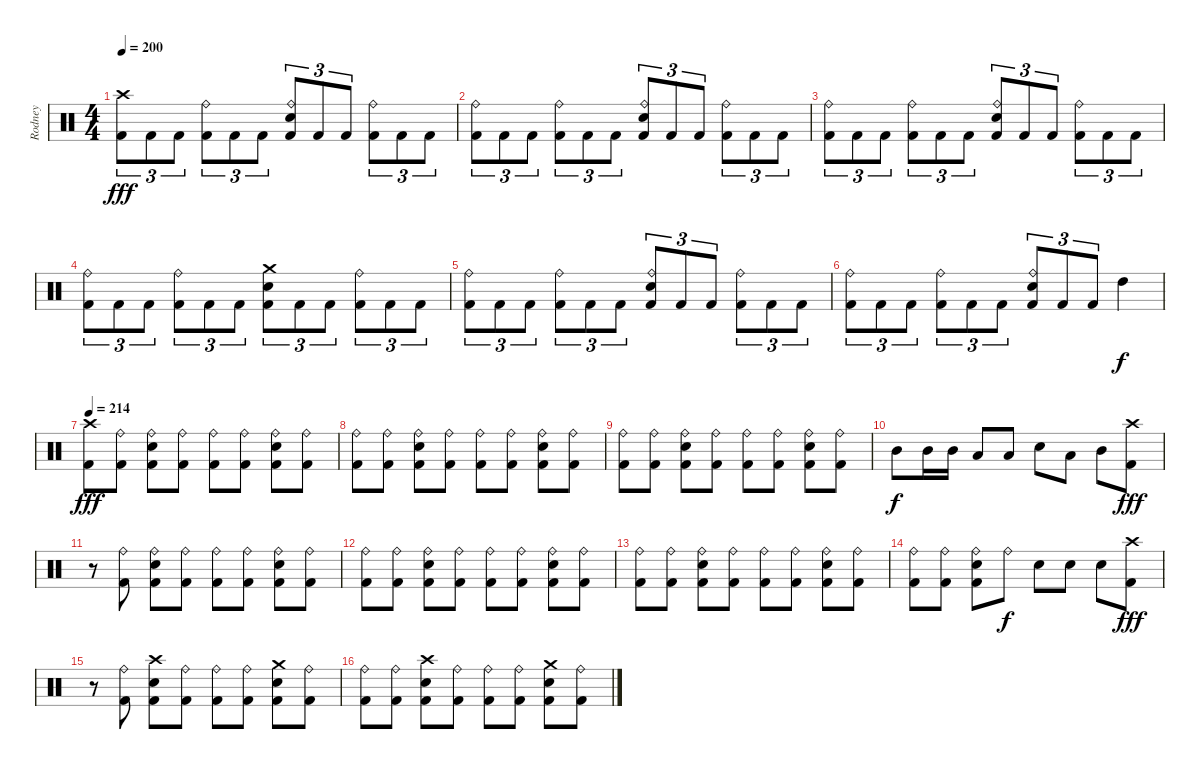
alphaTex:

\track ("Rodney" "Rodney") {instrument percussion}
\staff {score}
\articulation defaults
\ts (4 4)
\tempo 200
\clef neutral
\ks c
("Crash high (hit)" "Kick (hit) 2").8{tu (3 2) dy fff} "Kick (hit) 2".8{tu (3 2)} "Kick (hit) 2".8{tu (3 2)} ("Ride (bell)" "Kick (hit) 2").8{tu (3 2)} "Kick (hit) 2".8{tu (3 2)} "Kick (hit) 2".8{tu (3 2)} ("Ride (bell)" "Snare (hit) 2" "Kick (hit) 2").8{tu (3 2)} "Kick (hit) 2".8{tu (3 2)} "Kick (hit) 2".8{tu (3 2)} ("Ride (bell)" "Kick (hit) 2").8{tu (3 2)} "Kick (hit) 2".8{tu (3 2)} "Kick (hit) 2".8{tu (3 2)} |
("Ride (bell)" "Kick (hit) 2").8{tu (3 2)} "Kick (hit) 2".8{tu (3 2)} "Kick (hit) 2".8{tu (3 2)} ("Ride (bell)" "Kick (hit) 2").8{tu (3 2)} "Kick (hit) 2".8{tu (3 2)} "Kick (hit) 2".8{tu (3 2)} ("Ride (bell)" "Snare (hit) 2" "Kick (hit) 2").8{tu (3 2)} "Kick (hit) 2".8{tu (3 2)} "Kick (hit) 2".8{tu (3 2)} ("Ride (bell)" "Kick (hit) 2").8{tu (3 2)} "Kick (hit) 2".8{tu (3 2)} "Kick (hit) 2".8{tu (3 2)} |
("Ride (bell)" "Kick (hit) 2").8{tu (3 2)} "Kick (hit) 2".8{tu (3 2)} "Kick (hit) 2".8{tu (3 2)} ("Ride (bell)" "Kick (hit) 2").8{tu (3 2)} "Kick (hit) 2".8{tu (3 2)} "Kick (hit) 2".8{tu (3 2)} ("Ride (bell)" "Snare (hit) 2" "Kick (hit) 2").8{tu (3 2)} "Kick (hit) 2".8{tu (3 2)} "Kick (hit) 2".8{tu (3 2)} ("Ride (bell)" "Kick (hit) 2").8{tu (3 2)} "Kick (hit) 2".8{tu (3 2)} "Kick (hit) 2".8{tu (3 2)} |
("Ride (bell)" "Kick (hit) 2").8{tu (3 2)} "Kick (hit) 2".8{tu (3 2)} "Kick (hit) 2".8{tu (3 2)} ("Ride (bell)" "Kick (hit) 2").8{tu (3 2)} "Kick (hit) 2".8{tu (3 2)} "Kick (hit) 2".8{tu (3 2)} ("Crash medium (hit)" "Snare (hit) 2" "Kick (hit) 2").8{tu (3 2)} "Kick (hit) 2".8{tu (3 2)} "Kick (hit) 2".8{tu (3 2)} ("Ride (bell)" "Kick (hit) 2").8{tu (3 2)} "Kick (hit) 2".8{tu (3 2)} "Kick (hit) 2".8{tu (3 2)} |
("Ride (bell)" "Kick (hit) 2").8{tu (3 2)} "Kick (hit) 2".8{tu (3 2)} "Kick (hit) 2".8{tu (3 2)} ("Ride (bell)" "Kick (hit) 2").8{tu (3 2)} "Kick (hit) 2".8{tu (3 2)} "Kick (hit) 2".8{tu (3 2)} ("Ride (bell)" "Snare (hit) 2" "Kick (hit) 2").8{tu (3 2)} "Kick (hit) 2".8{tu (3 2)} "Kick (hit) 2".8{tu (3 2)} ("Ride (bell)" "Kick (hit) 2").8{tu (3 2)} "Kick (hit) 2".8{tu (3 2)} "Kick (hit) 2".8{tu (3 2)} |
("Ride (bell)" "Kick (hit) 2").8{tu (3 2)} "Kick (hit) 2".8{tu (3 2)} "Kick (hit) 2".8{tu (3 2)} ("Ride (bell)" "Kick (hit) 2").8{tu (3 2)} "Kick (hit) 2".8{tu (3 2)} "Kick (hit) 2".8{tu (3 2)} ("Ride (bell)" "Snare (hit) 2" "Kick (hit) 2").8{tu (3 2)} "Kick (hit) 2".8{tu (3 2)} "Kick (hit) 2".8{tu (3 2)} "High Tom (hit)".4{dy f} |
\tempo 214
("Crash high (hit)" "Kick (hit) 2").8{dy fff} ("Ride (bell)" "Kick (hit) 2").8 ("Ride (bell)" "Snare (hit) 2" "Kick (hit) 2").8 ("Ride (bell)" "Kick (hit) 2").8 ("Ride (bell)" "Kick (hit) 2").8 ("Ride (bell)" "Kick (hit) 2").8 ("Ride (bell)" "Snare (hit) 2" "Kick (hit) 2").8 ("Ride (bell)" "Kick (hit) 2").8 |
("Ride (bell)" "Kick (hit) 2").8 ("Ride (bell)" "Kick (hit) 2").8 ("Ride (bell)" "Snare (hit) 2" "Kick (hit) 2").8 ("Ride (bell)" "Kick (hit) 2").8 ("Ride (bell)" "Kick (hit) 2").8 ("Ride (bell)" "Kick (hit) 2").8 ("Ride (bell)" "Snare (hit) 2" "Kick (hit) 2").8 ("Ride (bell)" "Kick (hit) 2").8 |
("Ride (bell)" "Kick (hit) 2").8 ("Ride (bell)" "Kick (hit) 2").8 ("Ride (bell)" "Snare (hit) 2" "Kick (hit) 2").8 ("Ride (bell)" "Kick (hit) 2").8 ("Ride (bell)" "Kick (hit) 2").8 ("Ride (bell)" "Kick (hit) 2").8 ("Ride (bell)" "Snare (hit) 2" "Kick (hit) 2").8 ("Ride (bell)" "Kick (hit) 2").8 |
"Mid Tom (hit)".8{dy f} "Mid Tom (hit)".16 "Mid Tom (hit)".16 "Low Tom (hit)".8 "Low Tom (hit)".8 "Snare (hit) 2".8 "Low Tom (hit)".8 "Mid Tom (hit)".8 ("Crash high (hit)" "Kick (hit) 2").8{dy fff} |
r.8 ("Ride (bell)" "Kick (hit) 2").8 ("Ride (bell)" "Snare (hit) 2" "Kick (hit) 2").8 ("Ride (bell)" "Kick (hit) 2").8 ("Ride (bell)" "Kick (hit) 2").8 ("Ride (bell)" "Kick (hit) 2").8 ("Ride (bell)" "Snare (hit) 2" "Kick (hit) 2").8 ("Ride (bell)" "Kick (hit) 2").8 |
("Ride (bell)" "Kick (hit) 2").8 ("Ride (bell)" "Kick (hit) 2").8 ("Ride (bell)" "Snare (hit) 2" "Kick (hit) 2").8 ("Ride (bell)" "Kick (hit) 2").8 ("Ride (bell)" "Kick (hit) 2").8 ("Ride (bell)" "Kick (hit) 2").8 ("Ride (bell)" "Snare (hit) 2" "Kick (hit) 2").8 ("Ride (bell)" "Kick (hit) 2").8 |
("Ride (bell)" "Kick (hit) 2").8 ("Ride (bell)" "Kick (hit) 2").8 ("Ride (bell)" "Snare (hit) 2" "Kick (hit) 2").8 ("Ride (bell)" "Kick (hit) 2").8 ("Ride (bell)" "Kick (hit) 2").8 ("Ride (bell)" "Kick (hit) 2").8 ("Ride (bell)" "Snare (hit) 2" "Kick (hit) 2").8 ("Ride (bell)" "Kick (hit) 2").8 |
("Ride (bell)" "Kick (hit) 2").8 ("Ride (bell)" "Kick (hit) 2").8 ("Ride (bell)" "Snare (hit) 2" "Kick (hit) 2").8 "Ride (bell)".8{dy f} "Snare (hit) 2".8 "Snare (hit) 2".8 "Snare (hit) 2".8 ("Crash high (hit)" "Kick (hit) 2").8{dy fff} |
r.8 ("Ride (bell)" "Kick (hit) 2").8 ("Crash high (hit)" "Snare (hit) 2" "Kick (hit) 2").8 ("Ride (bell)" "Kick (hit) 2").8 ("Ride (bell)" "Kick (hit) 2").8 ("Ride (bell)" "Kick (hit) 2").8 ("Crash medium (hit)" "Snare (hit) 2" "Kick (hit) 2").8 ("Ride (bell)" "Kick (hit) 2").8 |
("Ride (bell)" "Kick (hit) 2").8 ("Ride (bell)" "Kick (hit) 2").8 ("Crash high (hit)" "Snare (hit) 2" "Kick (hit) 2").8 ("Ride (bell)" "Kick (hit) 2").8 ("Ride (bell)" "Kick (hit) 2").8 ("Ride (bell)" "Kick (hit) 2").8 ("Crash medium (hit)" "Snare (hit) 2" "Kick (hit) 2").8 ("Ride (bell)" "Kick (hit) 2").8
